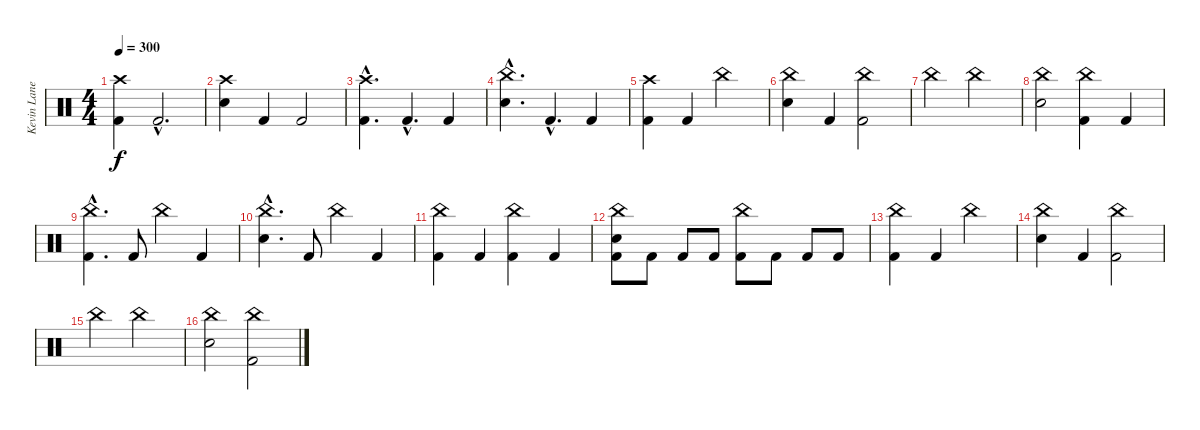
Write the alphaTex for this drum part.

\track ("Kevin Lane (Drums)" "Kevin Lane") {instrument percussion}
\staff {score}
\articulation defaults
\ts (4 4)
\tempo 300
\clef neutral
\ks c
("Crash high (hit)" "Kick (hit) 2").4{dy f} "Kick (hit) 2"{hac}.2{d} |
("Crash high (hit)" "Snare (hit) 2").4 "Kick (hit) 2".4 "Kick (hit) 2".2 |
("Crash high (hit)"{hac} "Kick (hit) 2"{hac}).4{d} "Kick (hit) 2"{hac}.4{d} "Kick (hit) 2".4 |
("China (hit)"{hac} "Snare (hit) 2"{hac}).4{d} "Kick (hit) 2"{hac}.4{d} "Kick (hit) 2".4 |
("Crash high (hit)" "Kick (hit) 2").4 "Kick (hit) 2".4 "China (hit)".2 |
("China (hit)" "Snare (hit) 2").4 "Kick (hit) 2".4 ("China (hit)" "Kick (hit) 2").2 |
"China (hit)".2 "China (hit)".2 |
("China (hit)" "Snare (hit) 2").2 ("China (hit)" "Kick (hit) 2").4 "Kick (hit) 2".4 |
("China (hit)"{hac} "Kick (hit) 2"{hac}).4{d} "Kick (hit) 2".8 "China (hit)".4 "Kick (hit) 2".4 |
("China (hit)"{hac} "Snare (hit) 2"{hac}).4{d} "Kick (hit) 2".8 "China (hit)".4 "Kick (hit) 2".4 |
("China (hit)" "Kick (hit) 2").4 "Kick (hit) 2".4 ("China (hit)" "Kick (hit) 2").4 "Kick (hit) 2".4 |
("Snare (hit) 2" "China (hit)" "Kick (hit) 2").8 "Kick (hit) 2".8 "Kick (hit) 2".8 "Kick (hit) 2".8 ("China (hit)" "Kick (hit) 2").8 "Kick (hit) 2".8 "Kick (hit) 2".8 "Kick (hit) 2".8 |
("China (hit)" "Kick (hit) 2").4 "Kick (hit) 2".4 "China (hit)".2 |
("China (hit)" "Snare (hit) 2").4 "Kick (hit) 2".4 ("China (hit)" "Kick (hit) 2").2 |
"China (hit)".2 "China (hit)".2 |
("China (hit)" "Snare (hit) 2").2 ("China (hit)" "Kick (hit) 2").2
